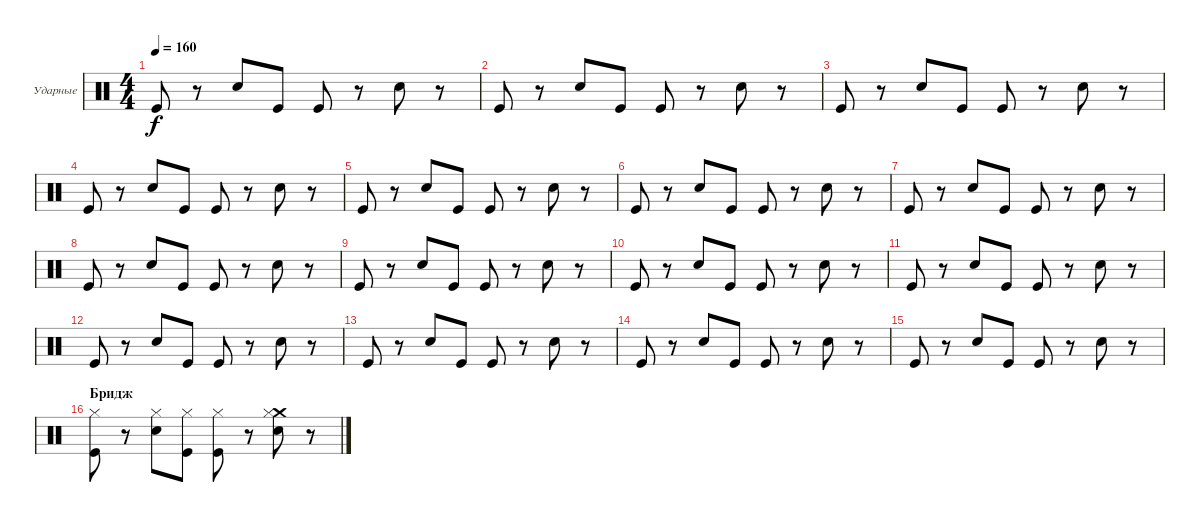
\bracketExtendMode groupsimilarinstruments
\firstSystemTrackNameOrientation horizontal
\otherSystemsTrackNameOrientation horizontal
\track ("Александр Львов" "Ударные") {instrument percussion}
\staff {score}
\articulation defaults
\ts (4 4)
\tempo 160
\clef neutral
\ks c "Kick (hit)".8{dy f}
r.8 "Snare (hit) 2".8 "Kick (hit)".8 "Kick (hit)".8 r.8 "Snare (hit) 2".8 r.8 |
"Kick (hit)".8 r.8 "Snare (hit) 2".8 "Kick (hit)".8 "Kick (hit)".8 r.8 "Snare (hit) 2".8 r.8 |
"Kick (hit)".8 r.8 "Snare (hit) 2".8 "Kick (hit)".8 "Kick (hit)".8 r.8 "Snare (hit) 2".8 r.8 |
"Kick (hit)".8 r.8 "Snare (hit) 2".8 "Kick (hit)".8 "Kick (hit)".8 r.8 "Snare (hit) 2".8 r.8 |
"Kick (hit)".8 r.8 "Snare (hit) 2".8 "Kick (hit)".8 "Kick (hit)".8 r.8 "Snare (hit) 2".8 r.8 |
"Kick (hit)".8 r.8 "Snare (hit) 2".8 "Kick (hit)".8 "Kick (hit)".8 r.8 "Snare (hit) 2".8 r.8 |
"Kick (hit)".8 r.8 "Snare (hit) 2".8 "Kick (hit)".8 "Kick (hit)".8 r.8 "Snare (hit) 2".8 r.8 |
"Kick (hit)".8 r.8 "Snare (hit) 2".8 "Kick (hit)".8 "Kick (hit)".8 r.8 "Snare (hit) 2".8 r.8 |
"Kick (hit)".8 r.8 "Snare (hit) 2".8 "Kick (hit)".8 "Kick (hit)".8 r.8 "Snare (hit) 2".8 r.8 |
"Kick (hit)".8 r.8 "Snare (hit) 2".8 "Kick (hit)".8 "Kick (hit)".8 r.8 "Snare (hit) 2".8 r.8 |
"Kick (hit)".8 r.8 "Snare (hit) 2".8 "Kick (hit)".8 "Kick (hit)".8 r.8 "Snare (hit) 2".8 r.8 |
"Kick (hit)".8 r.8 "Snare (hit) 2".8 "Kick (hit)".8 "Kick (hit)".8 r.8 "Snare (hit) 2".8 r.8 |
"Kick (hit)".8 r.8 "Snare (hit) 2".8 "Kick (hit)".8 "Kick (hit)".8 r.8 "Snare (hit) 2".8 r.8 |
"Kick (hit)".8 r.8 "Snare (hit) 2".8 "Kick (hit)".8 "Kick (hit)".8 r.8 "Snare (hit) 2".8 r.8 |
"Kick (hit)".8 r.8 "Snare (hit) 2".8 "Kick (hit)".8 "Kick (hit)".8 r.8 "Snare (hit) 2".8 r.8 |
\section ("" "Бридж")
("Kick (hit)" "Hi-Hat (closed)").8 r.8 ("Snare (hit) 2" "Hi-Hat (closed)").8 ("Kick (hit)" "Hi-Hat (closed)").8 ("Kick (hit)" "Hi-Hat (closed)").8 r.8 ("Snare (hit) 2" "Crash medium (hit)" "Hi-Hat (closed)").8 r.8
